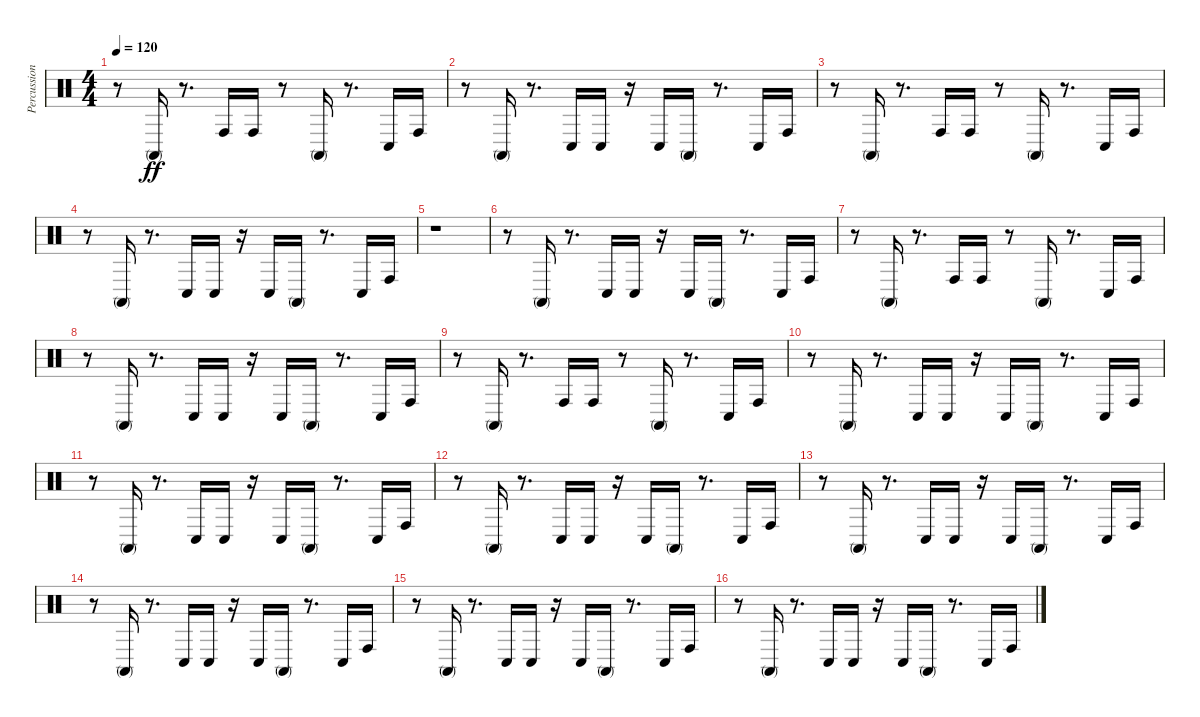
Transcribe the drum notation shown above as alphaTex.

\track ("Percussion" "Percussion") {instrument percussion}
\staff {score}
\articulation defaults
\ts (4 4)
\tempo 120
\clef neutral
\ks c
r.8{dy ff} "Conga high (mute)".16 r.8{d} "Conga high (hit)".16 "Conga high (hit)".16 r.8 "Conga high (mute)".16 r.8{d} "Conga low (hit)".16 "Conga high (hit)".16 |
r.8 "Conga high (mute)".16 r.8{d} "Conga low (hit)".16 "Conga low (hit)".16 r.16 "Conga low (hit)".16 "Conga high (mute)".16 r.8{d} "Conga low (hit)".16 "Conga high (hit)".16 |
r.8 "Conga high (mute)".16 r.8{d} "Conga high (hit)".16 "Conga high (hit)".16 r.8 "Conga high (mute)".16 r.8{d} "Conga low (hit)".16 "Conga high (hit)".16 |
r.8 "Conga high (mute)".16 r.8{d} "Conga low (hit)".16 "Conga low (hit)".16 r.16 "Conga low (hit)".16 "Conga high (mute)".16 r.8{d} "Conga low (hit)".16 "Conga high (hit)".16 |
r.1 |
r.8 "Conga high (mute)".16 r.8{d} "Conga low (hit)".16 "Conga low (hit)".16 r.16 "Conga low (hit)".16 "Conga high (mute)".16 r.8{d} "Conga low (hit)".16 "Conga high (hit)".16 |
r.8 "Conga high (mute)".16 r.8{d} "Conga high (hit)".16 "Conga high (hit)".16 r.8 "Conga high (mute)".16 r.8{d} "Conga low (hit)".16 "Conga high (hit)".16 |
r.8 "Conga high (mute)".16 r.8{d} "Conga low (hit)".16 "Conga low (hit)".16 r.16 "Conga low (hit)".16 "Conga high (mute)".16 r.8{d} "Conga low (hit)".16 "Conga high (hit)".16 |
r.8 "Conga high (mute)".16 r.8{d} "Conga high (hit)".16 "Conga high (hit)".16 r.8 "Conga high (mute)".16 r.8{d} "Conga low (hit)".16 "Conga high (hit)".16 |
r.8 "Conga high (mute)".16 r.8{d} "Conga low (hit)".16 "Conga low (hit)".16 r.16 "Conga low (hit)".16 "Conga high (mute)".16 r.8{d} "Conga low (hit)".16 "Conga high (hit)".16 |
r.8 "Conga high (mute)".16 r.8{d} "Conga low (hit)".16 "Conga low (hit)".16 r.16 "Conga low (hit)".16 "Conga high (mute)".16 r.8{d} "Conga low (hit)".16 "Conga high (hit)".16 |
r.8 "Conga high (mute)".16 r.8{d} "Conga low (hit)".16 "Conga low (hit)".16 r.16 "Conga low (hit)".16 "Conga high (mute)".16 r.8{d} "Conga low (hit)".16 "Conga high (hit)".16 |
r.8 "Conga high (mute)".16 r.8{d} "Conga low (hit)".16 "Conga low (hit)".16 r.16 "Conga low (hit)".16 "Conga high (mute)".16 r.8{d} "Conga low (hit)".16 "Conga high (hit)".16 |
r.8 "Conga high (mute)".16 r.8{d} "Conga low (hit)".16 "Conga low (hit)".16 r.16 "Conga low (hit)".16 "Conga high (mute)".16 r.8{d} "Conga low (hit)".16 "Conga high (hit)".16 |
r.8 "Conga high (mute)".16 r.8{d} "Conga low (hit)".16 "Conga low (hit)".16 r.16 "Conga low (hit)".16 "Conga high (mute)".16 r.8{d} "Conga low (hit)".16 "Conga high (hit)".16 |
r.8 "Conga high (mute)".16 r.8{d} "Conga low (hit)".16 "Conga low (hit)".16 r.16 "Conga low (hit)".16 "Conga high (mute)".16 r.8{d} "Conga low (hit)".16 "Conga high (hit)".16
